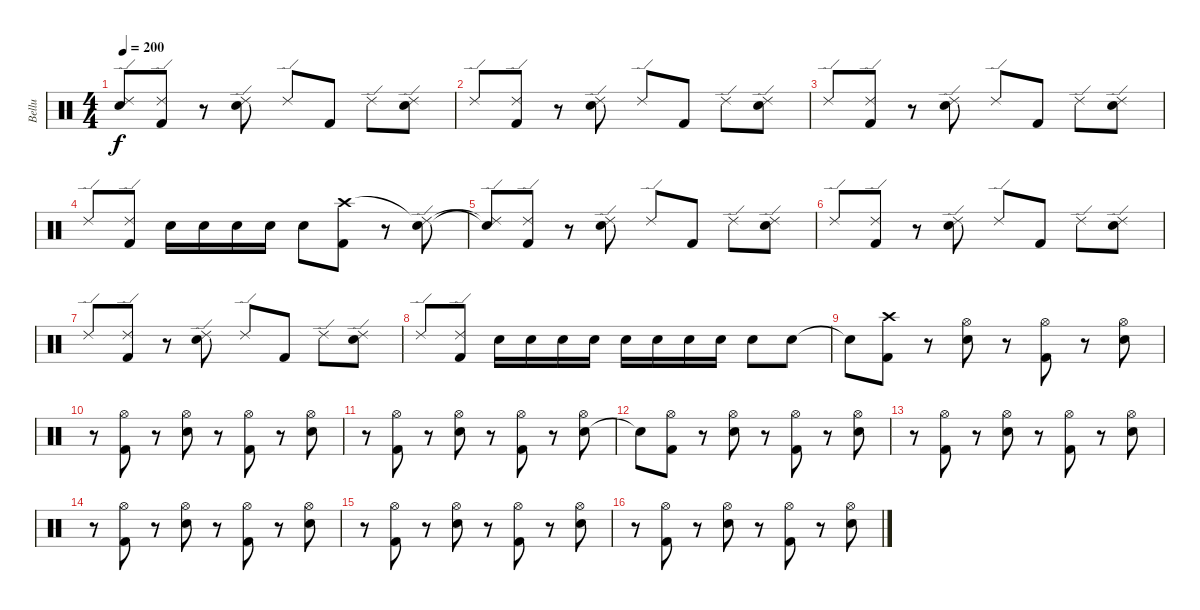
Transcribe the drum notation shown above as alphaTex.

\track ("Bellu" "Bellu") {instrument percussion}
\staff {score}
\articulation defaults
\ts (4 4)
\tempo 200
\clef neutral
\ks c
("Ride (edge) 2"{t} "Snare (hit)"{t}).8{dy f} ("Kick (hit) 2" "Ride (edge) 2").8 r.8 ("Electric Snare (hit)" "Ride (edge) 2").8 "Ride (edge) 2".8 "Kick (hit) 2".8 "Ride (edge) 2".8 ("Electric Snare (hit)" "Ride (edge) 2").8 |
"Ride (edge) 2".8 ("Kick (hit) 2" "Ride (edge) 2").8 r.8 ("Electric Snare (hit)" "Ride (edge) 2").8 "Ride (edge) 2".8 "Kick (hit) 2".8 "Ride (edge) 2".8 ("Electric Snare (hit)" "Ride (edge) 2").8 |
"Ride (edge) 2".8 ("Kick (hit) 2" "Ride (edge) 2").8 r.8 ("Electric Snare (hit)" "Ride (edge) 2").8 "Ride (edge) 2".8 "Kick (hit) 2".8 "Ride (edge) 2".8 ("Electric Snare (hit)" "Ride (edge) 2").8 |
"Ride (edge) 2".8 ("Kick (hit) 2" "Ride (edge) 2").8 "Electric Snare (hit)".16 "Electric Snare (hit)".16 "Electric Snare (hit)".16 "Electric Snare (hit)".16 "Electric Snare (hit)".8 ("Kick (hit) 2" "Crash high (hit)").8 r.8 ("Electric Snare (hit)" "Ride (edge) 2"{t}).8 |
("Ride (edge) 2"{t} "Snare (hit)"{t}).8 ("Kick (hit) 2" "Ride (edge) 2").8 r.8 ("Electric Snare (hit)" "Ride (edge) 2").8 "Ride (edge) 2".8 "Kick (hit) 2".8 "Ride (edge) 2".8 ("Electric Snare (hit)" "Ride (edge) 2").8 |
"Ride (edge) 2".8 ("Kick (hit) 2" "Ride (edge) 2").8 r.8 ("Electric Snare (hit)" "Ride (edge) 2").8 "Ride (edge) 2".8 "Kick (hit) 2".8 "Ride (edge) 2".8 ("Electric Snare (hit)" "Ride (edge) 2").8 |
"Ride (edge) 2".8 ("Kick (hit) 2" "Ride (edge) 2").8 r.8 ("Electric Snare (hit)" "Ride (edge) 2").8 "Ride (edge) 2".8 "Kick (hit) 2".8 "Ride (edge) 2".8 ("Electric Snare (hit)" "Ride (edge) 2").8 |
"Ride (edge) 2".8 ("Kick (hit) 2" "Ride (edge) 2").8 "Electric Snare (hit)".16 "Electric Snare (hit)".16 "Electric Snare (hit)".16 "Electric Snare (hit)".16 "Electric Snare (hit)".16 "Electric Snare (hit)".16 "Electric Snare (hit)".16 "Electric Snare (hit)".16 "Electric Snare (hit)".8 "Electric Snare (hit)".8 |
"Snare (hit)"{t}.8 ("Kick (hit) 2" "Crash high (hit)").8 r.8 ("Electric Snare (hit)" "Hi-Hat (open)").8 r.8 ("Kick (hit) 2" "Hi-Hat (open)").8 r.8 ("Electric Snare (hit)" "Hi-Hat (open)").8 |
r.8 ("Kick (hit) 2" "Hi-Hat (open)").8 r.8 ("Electric Snare (hit)" "Hi-Hat (open)").8 r.8 ("Kick (hit) 2" "Hi-Hat (open)").8 r.8 ("Electric Snare (hit)" "Hi-Hat (open)").8 |
r.8 ("Kick (hit) 2" "Hi-Hat (open)").8 r.8 ("Electric Snare (hit)" "Hi-Hat (open)").8 r.8 ("Kick (hit) 2" "Hi-Hat (open)").8 r.8 ("Electric Snare (hit)" "Hi-Hat (open)").8 |
"Snare (hit)"{t}.8 ("Kick (hit) 2" "Hi-Hat (open)").8 r.8 ("Electric Snare (hit)" "Hi-Hat (open)").8 r.8 ("Kick (hit) 2" "Hi-Hat (open)").8 r.8 ("Electric Snare (hit)" "Hi-Hat (open)").8 |
r.8 ("Kick (hit) 2" "Hi-Hat (open)").8 r.8 ("Electric Snare (hit)" "Hi-Hat (open)").8 r.8 ("Kick (hit) 2" "Hi-Hat (open)").8 r.8 ("Electric Snare (hit)" "Hi-Hat (open)").8 |
r.8 ("Kick (hit) 2" "Hi-Hat (open)").8 r.8 ("Electric Snare (hit)" "Hi-Hat (open)").8 r.8 ("Kick (hit) 2" "Hi-Hat (open)").8 r.8 ("Electric Snare (hit)" "Hi-Hat (open)").8 |
r.8 ("Kick (hit) 2" "Hi-Hat (open)").8 r.8 ("Electric Snare (hit)" "Hi-Hat (open)").8 r.8 ("Kick (hit) 2" "Hi-Hat (open)").8 r.8 ("Electric Snare (hit)" "Hi-Hat (open)").8 |
r.8 ("Kick (hit) 2" "Hi-Hat (open)").8 r.8 ("Electric Snare (hit)" "Hi-Hat (open)").8 r.8 ("Kick (hit) 2" "Hi-Hat (open)").8 r.8 ("Electric Snare (hit)" "Hi-Hat (open)").8
